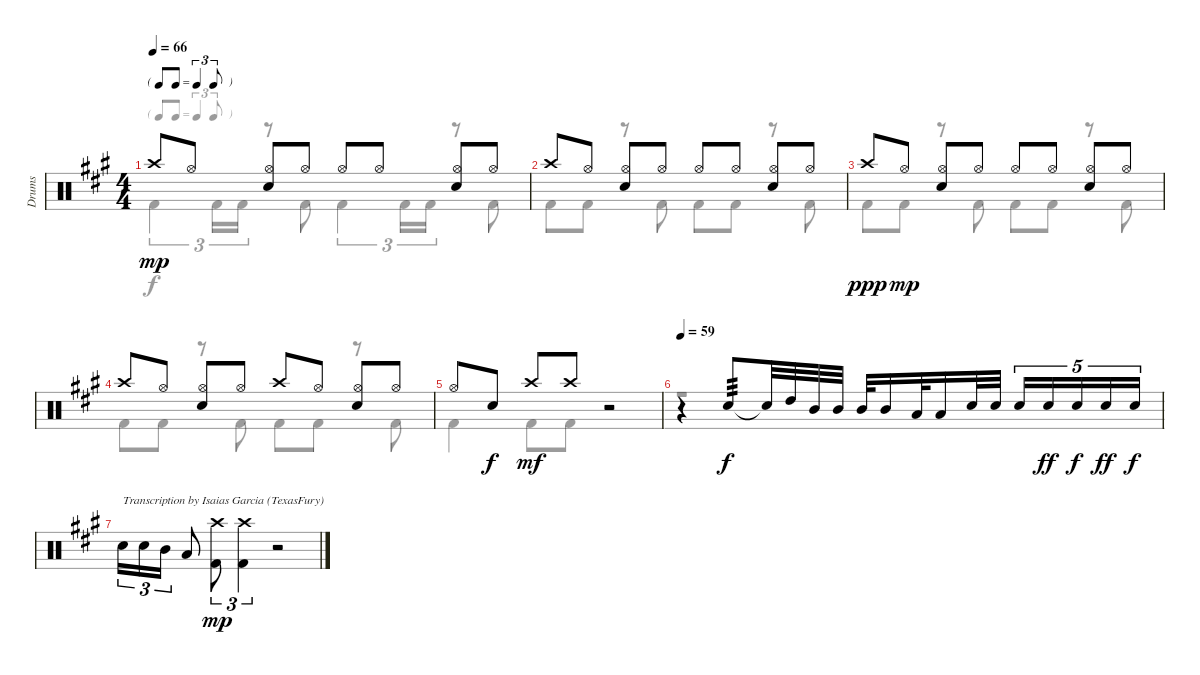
\track ("Drums" "Drums") {instrument percussion}
\staff {score}
\articulation defaults
\voice
\ts (4 4)
\tf triplet8th
\tempo 66
\clef neutral
\ks a "Crash high (hit)".8{dy mp} "Hi-Hat (open)".8
("Hi-Hat (open)" "Electric Snare (hit)").8 "Hi-Hat (open)".8 "Hi-Hat (open)".8 "Hi-Hat (open)".8 ("Hi-Hat (open)" "Electric Snare (hit)").8 "Hi-Hat (open)".8 |
"Crash high (hit)".8 "Hi-Hat (open)".8 ("Hi-Hat (open)" "Electric Snare (hit)").8 "Hi-Hat (open)".8 "Hi-Hat (open)".8 "Hi-Hat (open)".8 ("Hi-Hat (open)" "Electric Snare (hit)").8 "Hi-Hat (open)".8 |
"Crash high (hit)".8{dy ppp} "Hi-Hat (open)".8{dy mp} ("Hi-Hat (open)" "Electric Snare (hit)").8 "Hi-Hat (open)".8 "Hi-Hat (open)".8 "Hi-Hat (open)".8 ("Hi-Hat (open)" "Electric Snare (hit)").8 "Hi-Hat (open)".8 |
"Crash high (hit)".8 "Hi-Hat (open)".8 ("Hi-Hat (open)" "Electric Snare (hit)").8 "Hi-Hat (open)".8 "Crash high (hit)".8 "Hi-Hat (open)".8 ("Hi-Hat (open)" "Electric Snare (hit)").8 "Hi-Hat (open)".8 |
"Hi-Hat (open)".8 "Electric Snare (hit)".8{dy f} "Crash high (hit)".8{dy mf} "Crash high (hit)".8 r.2 |
\tempo 59
r.4 "Electric Snare (hit)".8{tp 3 dy f} "Electric Snare (hit)"{t}.32 "High Tom (hit)".32 "Mid Tom (hit)".32 "Mid Tom (hit)".32 "Mid Tom (hit)".32 "Mid Tom (hit)".16 "Low Tom (hit)".32 "Low Tom (hit)".16 "Electric Snare (hit)".32 "Electric Snare (hit)".32 "Electric Snare (hit)".16{tu (5 4)} "Electric Snare (hit)".16{tu (5 4) dy ff} "Electric Snare (hit)".16{tu (5 4) dy f} "Electric Snare (hit)".16{tu (5 4) dy ff} "Electric Snare (hit)".16{tu (5 4) dy f} |
"Electric Snare (hit)".16{tu (3 2) txt "Transcription by Isaias Garcia (TexasFury)"} "Electric Snare (hit)".16{tu (3 2)} "Mid Tom (hit)".16{tu (3 2)} "Low Tom (hit)".8 ("Kick (hit) 2" "Crash high (hit)").8{tu (3 2) dy mp} ("Kick (hit) 2" "Crash high (hit)").4{tu (3 2)} r.2
\voice
\clef neutral
\ottava regular
\simile none
\ks a "Kick (hit) 2".4{tu (3 2) dy f} "Kick (hit) 2".16{tu (3 2)} "Kick (hit) 2".16{tu (3 2)}
r.8 "Kick (hit) 2".8 "Kick (hit) 2".4{tu (3 2)} "Kick (hit) 2".16{tu (3 2)} "Kick (hit) 2".16{tu (3 2)} r.8 "Kick (hit) 2".8 |
"Kick (hit) 2".8 "Kick (hit) 2".8 r.8 "Kick (hit) 2".8 "Kick (hit) 2".8 "Kick (hit) 2".8 r.8 "Kick (hit) 2".8 |
"Kick (hit) 2".8 "Kick (hit) 2".8 r.8 "Kick (hit) 2".8 "Kick (hit) 2".8 "Kick (hit) 2".8 r.8 "Kick (hit) 2".8 |
"Kick (hit) 2".8 "Kick (hit) 2".8 r.8 "Kick (hit) 2".8 "Kick (hit) 2".8 "Kick (hit) 2".8 r.8 "Kick (hit) 2".8 |
"Kick (hit) 2".4 "Kick (hit) 2".8 "Kick (hit) 2".8 r.2 |
r.1 |
